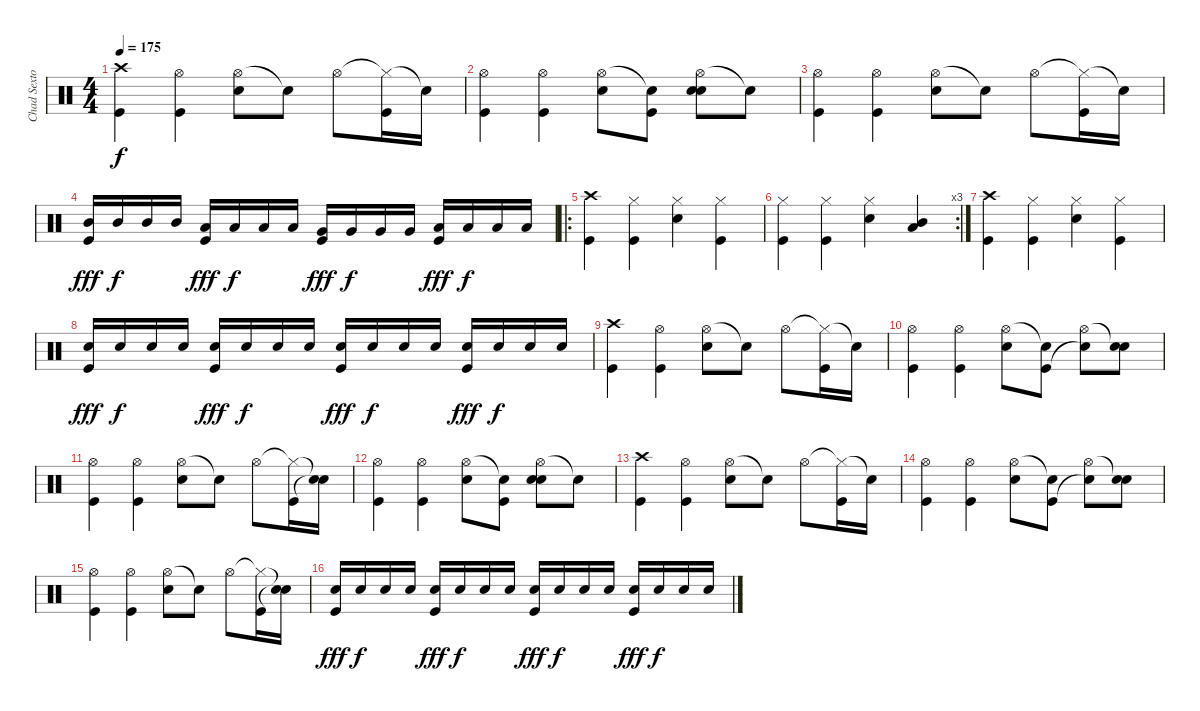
\track ("Chad Sexton" "Chad Sexto") {instrument percussion}
\staff {score}
\articulation defaults
\ts (4 4)
\tempo 175
\clef neutral
\ks c
("Crash high (hit)" "Kick (hit)").4{dy f} ("Hi-Hat (open)" "Kick (hit)").4 ("Hi-Hat (open)" "Snare (hit) 2").8 "Snare (hit)"{t}.8 "Hi-Hat (open)".8 ("Hi-Hat (closed)"{t} "Kick (hit)").16 "Snare (hit)"{t}.16 |
("Hi-Hat (open)" "Kick (hit)").4 ("Hi-Hat (open)" "Kick (hit)").4 ("Hi-Hat (open)" "Snare (hit) 2").8 ("Snare (hit)"{t} "Kick (hit)").8 ("Hi-Hat (open)" "Snare (hit) 2" "Snare (hit)").8 "Snare (hit)"{t}.8 |
("Hi-Hat (open)" "Kick (hit)").4 ("Hi-Hat (open)" "Kick (hit)").4 ("Hi-Hat (open)" "Snare (hit) 2").8 "Snare (hit)"{t}.8 "Hi-Hat (open)".8 ("Hi-Hat (closed)"{t} "Kick (hit)").16 "Snare (hit)"{t}.16 |
("Mid Tom (hit)" "Kick (hit)").16{dy fff} "Mid Tom (hit)".16{dy f} "Mid Tom (hit)".16 "Mid Tom (hit)".16 ("Low Tom (hit)" "Kick (hit)").16{dy fff} "Low Tom (hit)".16{dy f} "Low Tom (hit)".16 "Low Tom (hit)".16 ("Very Low Tom (hit)" "Kick (hit)").16{dy fff} "Very Low Tom (hit)".16{dy f} "Very Low Tom (hit)".16 "Very Low Tom (hit)".16 ("Low Floor Tom (hit)" "Kick (hit)").16{dy fff} "Low Floor Tom (hit)".16{dy f} "Low Floor Tom (hit)".16 "Low Floor Tom (hit)".16 |
\ro
("Crash high (hit)" "Kick (hit)").4 ("Hi-Hat (closed)" "Kick (hit)").4 ("Hi-Hat (closed)" "Snare (hit) 2").4 ("Hi-Hat (closed)" "Kick (hit)").4 |
\rc 3
("Hi-Hat (closed)" "Kick (hit)").4 ("Hi-Hat (closed)" "Kick (hit)").4 ("Hi-Hat (closed)" "Snare (hit) 2").4 ("Mid Tom (hit)" "Low Tom (hit)").4 |
("Crash high (hit)" "Kick (hit)").4 ("Hi-Hat (closed)" "Kick (hit)").4 ("Hi-Hat (closed)" "Snare (hit) 2").4 ("Hi-Hat (closed)" "Kick (hit)").4 |
("Snare (hit) 2" "Kick (hit)").16{dy fff} "Snare (hit) 2".16{dy f} "Snare (hit) 2".16 "Snare (hit) 2".16 ("Snare (hit) 2" "Kick (hit)").16{dy fff} "Snare (hit) 2".16{dy f} "Snare (hit) 2".16 "Snare (hit) 2".16 ("Snare (hit) 2" "Kick (hit)").16{dy fff} "Snare (hit) 2".16{dy f} "Snare (hit) 2".16 "Snare (hit) 2".16 ("Snare (hit) 2" "Kick (hit)").16{dy fff} "Snare (hit) 2".16{dy f} "Snare (hit) 2".16 "Snare (hit) 2".16 |
("Crash high (hit)" "Kick (hit)").4 ("Hi-Hat (open)" "Kick (hit)").4 ("Hi-Hat (open)" "Snare (hit) 2").8 "Snare (hit)"{t}.8 "Hi-Hat (open)".8 ("Hi-Hat (closed)"{t} "Kick (hit)").16 "Snare (hit)"{t}.16 |
("Hi-Hat (open)" "Kick (hit)").4 ("Hi-Hat (open)" "Kick (hit)").4 ("Hi-Hat (open)" "Snare (hit) 2").8 ("Snare (hit)"{t} "Kick (hit)").8 ("Hi-Hat (open)" "Snare (hit)"{t}).8 ("Snare (hit)"{t} "Snare (hit) 2").8 |
("Hi-Hat (open)" "Kick (hit)").4 ("Hi-Hat (open)" "Kick (hit)").4 ("Hi-Hat (open)" "Snare (hit) 2").8 "Snare (hit)"{t}.8 "Hi-Hat (open)".8 ("Hi-Hat (closed)"{t} "Kick (hit)").16 ("Snare (hit)"{t} "Snare (hit)"{t}).16 |
("Hi-Hat (open)" "Kick (hit)").4 ("Hi-Hat (open)" "Kick (hit)").4 ("Hi-Hat (open)" "Snare (hit) 2").8 ("Snare (hit)"{t} "Kick (hit)").8 ("Hi-Hat (open)" "Snare (hit) 2" "Snare (hit)").8 "Snare (hit)"{t}.8 |
("Crash high (hit)" "Kick (hit)").4 ("Hi-Hat (open)" "Kick (hit)").4 ("Hi-Hat (open)" "Snare (hit) 2").8 "Snare (hit)"{t}.8 "Hi-Hat (open)".8 ("Hi-Hat (closed)"{t} "Kick (hit)").16 "Snare (hit)"{t}.16 |
("Hi-Hat (open)" "Kick (hit)").4 ("Hi-Hat (open)" "Kick (hit)").4 ("Hi-Hat (open)" "Snare (hit) 2").8 ("Snare (hit)"{t} "Kick (hit)").8 ("Hi-Hat (open)" "Snare (hit)"{t}).8 ("Snare (hit)"{t} "Snare (hit) 2").8 |
("Hi-Hat (open)" "Kick (hit)").4 ("Hi-Hat (open)" "Kick (hit)").4 ("Hi-Hat (open)" "Snare (hit) 2").8 "Snare (hit)"{t}.8 "Hi-Hat (open)".8 ("Hi-Hat (closed)"{t} "Kick (hit)").16 ("Snare (hit)"{t} "Snare (hit)"{t}).16 |
("Snare (hit) 2" "Kick (hit)").16{dy fff} "Snare (hit) 2".16{dy f} "Snare (hit) 2".16 "Snare (hit) 2".16 ("Snare (hit) 2" "Kick (hit)").16{dy fff} "Snare (hit) 2".16{dy f} "Snare (hit) 2".16 "Snare (hit) 2".16 ("Snare (hit) 2" "Kick (hit)").16{dy fff} "Snare (hit) 2".16{dy f} "Snare (hit) 2".16 "Snare (hit) 2".16 ("Snare (hit) 2" "Kick (hit)").16{dy fff} "Snare (hit) 2".16{dy f} "Snare (hit) 2".16 "Snare (hit) 2".16
